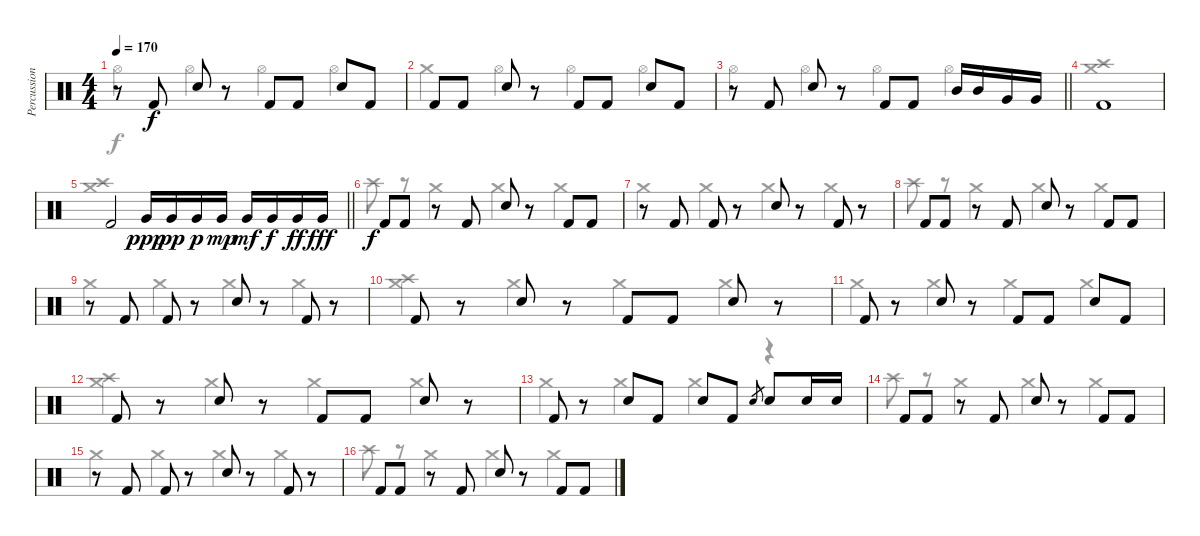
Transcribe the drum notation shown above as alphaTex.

\track ("Percussion" "Percussion") {instrument percussion}
\staff {score}
\articulation defaults
\voice
\ts (4 4)
\tempo 170
\clef neutral
\ks c
r.8{dy f} "Kick (hit) 2".8 "Snare (hit) 2".8 r.8 "Kick (hit) 2".8 "Kick (hit) 2".8 "Snare (hit) 2".8 "Kick (hit) 2".8 |
"Kick (hit) 2".8 "Kick (hit) 2".8 "Snare (hit) 2".8 r.8 "Kick (hit) 2".8 "Kick (hit) 2".8 "Snare (hit) 2".8 "Kick (hit) 2".8 |
\barLineRight lightlight
r.8 "Kick (hit) 2".8 "Snare (hit) 2".8 r.8 "Kick (hit) 2".8 "Kick (hit) 2".8 "Mid Tom (hit)".16 "Mid Tom (hit)".16 "Very Low Tom (hit)".16 "Very Low Tom (hit)".16 |
"Kick (hit) 2".1 |
\barLineRight lightlight "Kick (hit) 2".2 "Very Low Tom (hit)".16{dy ppp} "Very Low Tom (hit)".16{dy pp} "Very Low Tom (hit)".16{dy p} "Very Low Tom (hit)".16{dy mp} "Very Low Tom (hit)".16{dy mf} "Very Low Tom (hit)".16{dy f} "Very Low Tom (hit)".16{dy ff} "Very Low Tom (hit)".16{dy fff}
|
"Kick (hit) 2".8{dy f} "Kick (hit) 2".8 r.8 "Kick (hit) 2".8 "Snare (hit) 2".8 r.8 "Kick (hit) 2".8 "Kick (hit) 2".8 |
r.8 "Kick (hit) 2".8 "Kick (hit) 2".8 r.8 "Snare (hit) 2".8 r.8 "Kick (hit) 2".8 r.8 |
"Kick (hit) 2".8 "Kick (hit) 2".8 r.8 "Kick (hit) 2".8 "Snare (hit) 2".8 r.8 "Kick (hit) 2".8 "Kick (hit) 2".8 |
r.8 "Kick (hit) 2".8 "Kick (hit) 2".8 r.8 "Snare (hit) 2".8 r.8 "Kick (hit) 2".8 r.8 |
"Kick (hit) 2".8 r.8 "Snare (hit) 2".8 r.8 "Kick (hit) 2".8 "Kick (hit) 2".8 "Snare (hit) 2".8 r.8 |
"Kick (hit) 2".8 r.8 "Snare (hit) 2".8 r.8 "Kick (hit) 2".8 "Kick (hit) 2".8 "Snare (hit) 2".8 "Kick (hit) 2".8 |
"Kick (hit) 2".8 r.8 "Snare (hit) 2".8 r.8 "Kick (hit) 2".8 "Kick (hit) 2".8 "Snare (hit) 2".8 r.8 |
"Kick (hit) 2".8 r.8 "Snare (hit) 2".8 "Kick (hit) 2".8 "Snare (hit) 2".8 "Kick (hit) 2".8 "Snare (hit) 2".8{gr} "Snare (hit) 2".8 "Snare (hit) 2".16 "Snare (hit) 2".16 |
"Kick (hit) 2".8 "Kick (hit) 2".8 r.8 "Kick (hit) 2".8 "Snare (hit) 2".8 r.8 "Kick (hit) 2".8 "Kick (hit) 2".8 |
r.8 "Kick (hit) 2".8 "Kick (hit) 2".8 r.8 "Snare (hit) 2".8 r.8 "Kick (hit) 2".8 r.8 |
"Kick (hit) 2".8 "Kick (hit) 2".8 r.8 "Kick (hit) 2".8 "Snare (hit) 2".8 r.8 "Kick (hit) 2".8 "Kick (hit) 2".8
\voice
\clef neutral
\ottava regular
\simile none
\ks c "Hi-Hat (open)".4{dy f} "Hi-Hat (open)".4 "Hi-Hat (open)".4 "Hi-Hat (open)".4
|
"Crash medium (hit)".4 "Hi-Hat (open)".4 "Hi-Hat (open)".4 "Hi-Hat (open)".4 |
\barLineRight lightlight "Hi-Hat (open)".4 "Hi-Hat (open)".4 "Hi-Hat (open)".4 "Hi-Hat (open)".4
|
("Crash high (hit)" "Crash medium (hit)").1 |
\barLineRight lightlight
("Crash high (hit)" "Crash medium (hit)").1 |
"Crash high (hit)".8 r.8 "Crash medium (hit)".4 "Crash medium (hit)".4 "Crash medium (hit)".4 |
"Crash medium (hit)".4 "Crash medium (hit)".4 "Crash medium (hit)".4 "Crash medium (hit)".4 |
"Crash high (hit)".8 r.8 "Crash medium (hit)".4 "Crash medium (hit)".4 "Crash medium (hit)".4 |
"Crash medium (hit)".4 "Crash medium (hit)".4 "Crash medium (hit)".4 "Crash medium (hit)".4 |
("Crash medium (hit)" "Crash high (hit)").4 "Crash medium (hit)".4 "Crash medium (hit)".4 "Crash medium (hit)".4 |
"Crash medium (hit)".4 "Crash medium (hit)".4 "Crash medium (hit)".4 "Crash medium (hit)".4 |
("Crash medium (hit)" "Crash high (hit)").4 "Crash medium (hit)".4 "Crash medium (hit)".4 "Crash medium (hit)".4 |
"Crash medium (hit)".4 "Crash medium (hit)".4 "Crash medium (hit)".4 r.4 |
"Crash high (hit)".8 r.8 "Crash medium (hit)".4 "Crash medium (hit)".4 "Crash medium (hit)".4 |
"Crash medium (hit)".4 "Crash medium (hit)".4 "Crash medium (hit)".4 "Crash medium (hit)".4 |
"Crash high (hit)".8 r.8 "Crash medium (hit)".4 "Crash medium (hit)".4 "Crash medium (hit)".4
